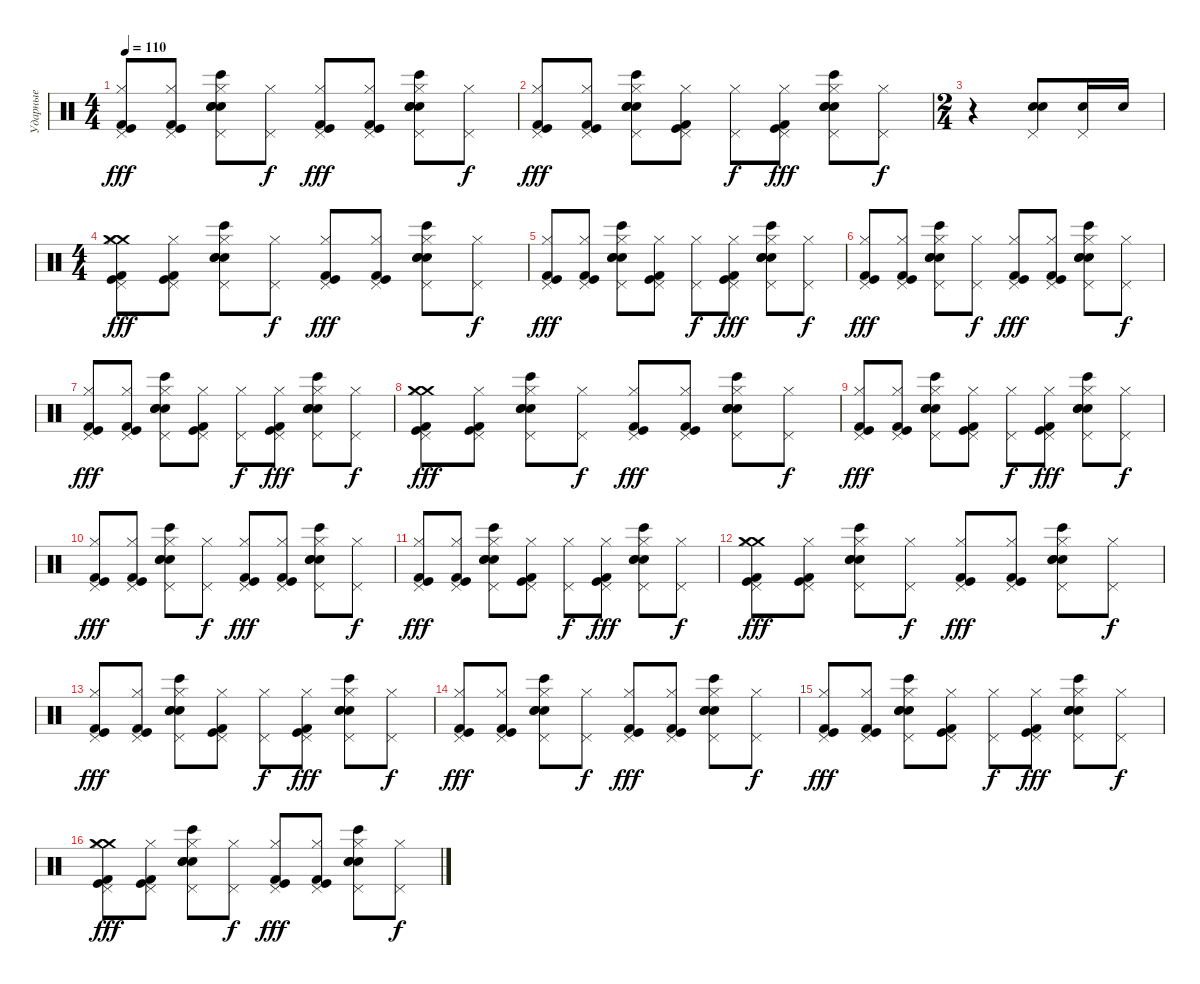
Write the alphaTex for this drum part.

\track ("Ударные" "Ударные") {instrument percussion}
\staff {score}
\articulation defaults
\ts (4 4)
\tempo 110
\clef neutral
\ks c
("Kick (hit) 2" "Kick (hit)" "Hi-Hat (closed)" "Pedal Hi-Hat (hit)").8{dy fff} ("Kick (hit) 2" "Kick (hit)" "Hi-Hat (closed)" "Pedal Hi-Hat (hit)").8 ("Bongo High (hit)" "Snare (hit) 2" "Snare (hit) 2" "Snare (hit) 2" "Hi-Hat (closed)" "Pedal Hi-Hat (hit)").8 ("Hi-Hat (closed)" "Pedal Hi-Hat (hit)").8{dy f} ("Kick (hit) 2" "Kick (hit)" "Hi-Hat (closed)" "Pedal Hi-Hat (hit)").8{dy fff} ("Kick (hit) 2" "Kick (hit)" "Hi-Hat (closed)" "Pedal Hi-Hat (hit)").8 ("Bongo High (hit)" "Snare (hit) 2" "Snare (hit) 2" "Snare (hit) 2" "Hi-Hat (closed)" "Pedal Hi-Hat (hit)").8 ("Hi-Hat (closed)" "Pedal Hi-Hat (hit)").8{dy f} |
("Kick (hit) 2" "Kick (hit)" "Hi-Hat (closed)" "Pedal Hi-Hat (hit)").8{dy fff} ("Kick (hit) 2" "Kick (hit)" "Hi-Hat (closed)" "Pedal Hi-Hat (hit)").8 ("Bongo High (hit)" "Snare (hit) 2" "Snare (hit) 2" "Snare (hit) 2" "Hi-Hat (closed)" "Pedal Hi-Hat (hit)").8 ("Kick (hit) 2" "Kick (hit)" "Hi-Hat (closed)" "Pedal Hi-Hat (hit)").8 ("Hi-Hat (closed)" "Pedal Hi-Hat (hit)").8{dy f} ("Kick (hit) 2" "Kick (hit)" "Hi-Hat (closed)" "Pedal Hi-Hat (hit)").8{dy fff} ("Bongo High (hit)" "Snare (hit) 2" "Snare (hit) 2" "Snare (hit) 2" "Hi-Hat (closed)" "Pedal Hi-Hat (hit)").8 ("Hi-Hat (closed)" "Pedal Hi-Hat (hit)").8{dy f} |
\ts (2 4)
r.4 ("Hand Clap (hit)" "Snare (hit) 2" "Pedal Hi-Hat (hit)").8 ("Snare (hit) 2" "Pedal Hi-Hat (hit)").16 "Snare (hit) 2".16 |
\ts (4 4)
("Crash medium (hit)" "Crash medium (hit)" "Kick (hit) 2" "Kick (hit)" "Hi-Hat (closed)" "Pedal Hi-Hat (hit)").8{dy fff} ("Kick (hit) 2" "Kick (hit)" "Hi-Hat (closed)" "Pedal Hi-Hat (hit)").8 ("Bongo High (hit)" "Snare (hit) 2" "Snare (hit) 2" "Snare (hit) 2" "Hi-Hat (closed)" "Pedal Hi-Hat (hit)").8 ("Hi-Hat (closed)" "Pedal Hi-Hat (hit)").8{dy f} ("Kick (hit) 2" "Kick (hit)" "Hi-Hat (closed)" "Pedal Hi-Hat (hit)").8{dy fff} ("Kick (hit) 2" "Kick (hit)" "Hi-Hat (closed)" "Pedal Hi-Hat (hit)").8 ("Bongo High (hit)" "Snare (hit) 2" "Snare (hit) 2" "Snare (hit) 2" "Hi-Hat (closed)" "Pedal Hi-Hat (hit)").8 ("Hi-Hat (closed)" "Pedal Hi-Hat (hit)").8{dy f} |
("Kick (hit) 2" "Kick (hit)" "Hi-Hat (closed)" "Pedal Hi-Hat (hit)").8{dy fff} ("Kick (hit) 2" "Kick (hit)" "Hi-Hat (closed)" "Pedal Hi-Hat (hit)").8 ("Bongo High (hit)" "Snare (hit) 2" "Snare (hit) 2" "Snare (hit) 2" "Hi-Hat (closed)" "Pedal Hi-Hat (hit)").8 ("Kick (hit) 2" "Kick (hit)" "Hi-Hat (closed)" "Pedal Hi-Hat (hit)").8 ("Hi-Hat (closed)" "Pedal Hi-Hat (hit)").8{dy f} ("Kick (hit) 2" "Kick (hit)" "Hi-Hat (closed)" "Pedal Hi-Hat (hit)").8{dy fff} ("Bongo High (hit)" "Snare (hit) 2" "Snare (hit) 2" "Snare (hit) 2" "Hi-Hat (closed)" "Pedal Hi-Hat (hit)").8 ("Hi-Hat (closed)" "Pedal Hi-Hat (hit)").8{dy f} |
("Kick (hit) 2" "Kick (hit)" "Hi-Hat (closed)" "Pedal Hi-Hat (hit)").8{dy fff} ("Kick (hit) 2" "Kick (hit)" "Hi-Hat (closed)" "Pedal Hi-Hat (hit)").8 ("Bongo High (hit)" "Snare (hit) 2" "Snare (hit) 2" "Snare (hit) 2" "Hi-Hat (closed)" "Pedal Hi-Hat (hit)").8 ("Hi-Hat (closed)" "Pedal Hi-Hat (hit)").8{dy f} ("Kick (hit) 2" "Kick (hit)" "Hi-Hat (closed)" "Pedal Hi-Hat (hit)").8{dy fff} ("Kick (hit) 2" "Kick (hit)" "Hi-Hat (closed)" "Pedal Hi-Hat (hit)").8 ("Bongo High (hit)" "Snare (hit) 2" "Snare (hit) 2" "Snare (hit) 2" "Hi-Hat (closed)" "Pedal Hi-Hat (hit)").8 ("Hi-Hat (closed)" "Pedal Hi-Hat (hit)").8{dy f} |
("Kick (hit) 2" "Kick (hit)" "Hi-Hat (closed)" "Pedal Hi-Hat (hit)").8{dy fff} ("Kick (hit) 2" "Kick (hit)" "Hi-Hat (closed)" "Pedal Hi-Hat (hit)").8 ("Bongo High (hit)" "Snare (hit) 2" "Snare (hit) 2" "Snare (hit) 2" "Hi-Hat (closed)" "Pedal Hi-Hat (hit)").8 ("Kick (hit) 2" "Kick (hit)" "Hi-Hat (closed)" "Pedal Hi-Hat (hit)").8 ("Hi-Hat (closed)" "Pedal Hi-Hat (hit)").8{dy f} ("Kick (hit) 2" "Kick (hit)" "Hi-Hat (closed)" "Pedal Hi-Hat (hit)").8{dy fff} ("Bongo High (hit)" "Snare (hit) 2" "Snare (hit) 2" "Snare (hit) 2" "Hi-Hat (closed)" "Pedal Hi-Hat (hit)").8 ("Hi-Hat (closed)" "Pedal Hi-Hat (hit)").8{dy f} |
("Crash medium (hit)" "Crash medium (hit)" "Kick (hit) 2" "Kick (hit)" "Hi-Hat (closed)" "Pedal Hi-Hat (hit)").8{dy fff} ("Kick (hit) 2" "Kick (hit)" "Hi-Hat (closed)" "Pedal Hi-Hat (hit)").8 ("Bongo High (hit)" "Snare (hit) 2" "Snare (hit) 2" "Snare (hit) 2" "Hi-Hat (closed)" "Pedal Hi-Hat (hit)").8 ("Hi-Hat (closed)" "Pedal Hi-Hat (hit)").8{dy f} ("Kick (hit) 2" "Kick (hit)" "Hi-Hat (closed)" "Pedal Hi-Hat (hit)").8{dy fff} ("Kick (hit) 2" "Kick (hit)" "Hi-Hat (closed)" "Pedal Hi-Hat (hit)").8 ("Bongo High (hit)" "Snare (hit) 2" "Snare (hit) 2" "Snare (hit) 2" "Hi-Hat (closed)" "Pedal Hi-Hat (hit)").8 ("Hi-Hat (closed)" "Pedal Hi-Hat (hit)").8{dy f} |
("Kick (hit) 2" "Kick (hit)" "Hi-Hat (closed)" "Pedal Hi-Hat (hit)").8{dy fff} ("Kick (hit) 2" "Kick (hit)" "Hi-Hat (closed)" "Pedal Hi-Hat (hit)").8 ("Bongo High (hit)" "Snare (hit) 2" "Snare (hit) 2" "Snare (hit) 2" "Hi-Hat (closed)" "Pedal Hi-Hat (hit)").8 ("Kick (hit) 2" "Kick (hit)" "Hi-Hat (closed)" "Pedal Hi-Hat (hit)").8 ("Hi-Hat (closed)" "Pedal Hi-Hat (hit)").8{dy f} ("Kick (hit) 2" "Kick (hit)" "Hi-Hat (closed)" "Pedal Hi-Hat (hit)").8{dy fff} ("Bongo High (hit)" "Snare (hit) 2" "Snare (hit) 2" "Snare (hit) 2" "Hi-Hat (closed)" "Pedal Hi-Hat (hit)").8 ("Hi-Hat (closed)" "Pedal Hi-Hat (hit)").8{dy f} |
("Kick (hit) 2" "Kick (hit)" "Hi-Hat (closed)" "Pedal Hi-Hat (hit)").8{dy fff} ("Kick (hit) 2" "Kick (hit)" "Hi-Hat (closed)" "Pedal Hi-Hat (hit)").8 ("Bongo High (hit)" "Snare (hit) 2" "Snare (hit) 2" "Snare (hit) 2" "Hi-Hat (closed)" "Pedal Hi-Hat (hit)").8 ("Hi-Hat (closed)" "Pedal Hi-Hat (hit)").8{dy f} ("Kick (hit) 2" "Kick (hit)" "Hi-Hat (closed)" "Pedal Hi-Hat (hit)").8{dy fff} ("Kick (hit) 2" "Kick (hit)" "Hi-Hat (closed)" "Pedal Hi-Hat (hit)").8 ("Bongo High (hit)" "Snare (hit) 2" "Snare (hit) 2" "Snare (hit) 2" "Hi-Hat (closed)" "Pedal Hi-Hat (hit)").8 ("Hi-Hat (closed)" "Pedal Hi-Hat (hit)").8{dy f} |
("Kick (hit) 2" "Kick (hit)" "Hi-Hat (closed)" "Pedal Hi-Hat (hit)").8{dy fff} ("Kick (hit) 2" "Kick (hit)" "Hi-Hat (closed)" "Pedal Hi-Hat (hit)").8 ("Bongo High (hit)" "Snare (hit) 2" "Snare (hit) 2" "Snare (hit) 2" "Hi-Hat (closed)" "Pedal Hi-Hat (hit)").8 ("Kick (hit) 2" "Kick (hit)" "Hi-Hat (closed)" "Pedal Hi-Hat (hit)").8 ("Hi-Hat (closed)" "Pedal Hi-Hat (hit)").8{dy f} ("Kick (hit) 2" "Kick (hit)" "Hi-Hat (closed)" "Pedal Hi-Hat (hit)").8{dy fff} ("Bongo High (hit)" "Snare (hit) 2" "Snare (hit) 2" "Snare (hit) 2" "Hi-Hat (closed)" "Pedal Hi-Hat (hit)").8 ("Hi-Hat (closed)" "Pedal Hi-Hat (hit)").8{dy f} |
("Crash medium (hit)" "Crash medium (hit)" "Kick (hit) 2" "Kick (hit)" "Hi-Hat (closed)" "Pedal Hi-Hat (hit)").8{dy fff} ("Kick (hit) 2" "Kick (hit)" "Hi-Hat (closed)" "Pedal Hi-Hat (hit)").8 ("Bongo High (hit)" "Snare (hit) 2" "Snare (hit) 2" "Snare (hit) 2" "Hi-Hat (closed)" "Pedal Hi-Hat (hit)").8 ("Hi-Hat (closed)" "Pedal Hi-Hat (hit)").8{dy f} ("Kick (hit) 2" "Kick (hit)" "Hi-Hat (closed)" "Pedal Hi-Hat (hit)").8{dy fff} ("Kick (hit) 2" "Kick (hit)" "Hi-Hat (closed)" "Pedal Hi-Hat (hit)").8 ("Bongo High (hit)" "Snare (hit) 2" "Snare (hit) 2" "Snare (hit) 2" "Hi-Hat (closed)" "Pedal Hi-Hat (hit)").8 ("Hi-Hat (closed)" "Pedal Hi-Hat (hit)").8{dy f} |
("Kick (hit) 2" "Kick (hit)" "Hi-Hat (closed)" "Pedal Hi-Hat (hit)").8{dy fff} ("Kick (hit) 2" "Kick (hit)" "Hi-Hat (closed)" "Pedal Hi-Hat (hit)").8 ("Bongo High (hit)" "Snare (hit) 2" "Snare (hit) 2" "Snare (hit) 2" "Hi-Hat (closed)" "Pedal Hi-Hat (hit)").8 ("Kick (hit) 2" "Kick (hit)" "Hi-Hat (closed)" "Pedal Hi-Hat (hit)").8 ("Hi-Hat (closed)" "Pedal Hi-Hat (hit)").8{dy f} ("Kick (hit) 2" "Kick (hit)" "Hi-Hat (closed)" "Pedal Hi-Hat (hit)").8{dy fff} ("Bongo High (hit)" "Snare (hit) 2" "Snare (hit) 2" "Snare (hit) 2" "Hi-Hat (closed)" "Pedal Hi-Hat (hit)").8 ("Hi-Hat (closed)" "Pedal Hi-Hat (hit)").8{dy f} |
("Kick (hit) 2" "Kick (hit)" "Hi-Hat (closed)" "Pedal Hi-Hat (hit)").8{dy fff} ("Kick (hit) 2" "Kick (hit)" "Hi-Hat (closed)" "Pedal Hi-Hat (hit)").8 ("Bongo High (hit)" "Snare (hit) 2" "Snare (hit) 2" "Snare (hit) 2" "Hi-Hat (closed)" "Pedal Hi-Hat (hit)").8 ("Hi-Hat (closed)" "Pedal Hi-Hat (hit)").8{dy f} ("Kick (hit) 2" "Kick (hit)" "Hi-Hat (closed)" "Pedal Hi-Hat (hit)").8{dy fff} ("Kick (hit) 2" "Kick (hit)" "Hi-Hat (closed)" "Pedal Hi-Hat (hit)").8 ("Bongo High (hit)" "Snare (hit) 2" "Snare (hit) 2" "Snare (hit) 2" "Hi-Hat (closed)" "Pedal Hi-Hat (hit)").8 ("Hi-Hat (closed)" "Pedal Hi-Hat (hit)").8{dy f} |
("Kick (hit) 2" "Kick (hit)" "Hi-Hat (closed)" "Pedal Hi-Hat (hit)").8{dy fff} ("Kick (hit) 2" "Kick (hit)" "Hi-Hat (closed)" "Pedal Hi-Hat (hit)").8 ("Bongo High (hit)" "Snare (hit) 2" "Snare (hit) 2" "Snare (hit) 2" "Hi-Hat (closed)" "Pedal Hi-Hat (hit)").8 ("Kick (hit) 2" "Kick (hit)" "Hi-Hat (closed)" "Pedal Hi-Hat (hit)").8 ("Hi-Hat (closed)" "Pedal Hi-Hat (hit)").8{dy f} ("Kick (hit) 2" "Kick (hit)" "Hi-Hat (closed)" "Pedal Hi-Hat (hit)").8{dy fff} ("Bongo High (hit)" "Snare (hit) 2" "Snare (hit) 2" "Snare (hit) 2" "Hi-Hat (closed)" "Pedal Hi-Hat (hit)").8 ("Hi-Hat (closed)" "Pedal Hi-Hat (hit)").8{dy f} |
("Crash medium (hit)" "Crash medium (hit)" "Kick (hit) 2" "Kick (hit)" "Hi-Hat (closed)" "Pedal Hi-Hat (hit)").8{dy fff} ("Kick (hit) 2" "Kick (hit)" "Hi-Hat (closed)" "Pedal Hi-Hat (hit)").8 ("Bongo High (hit)" "Snare (hit) 2" "Snare (hit) 2" "Snare (hit) 2" "Hi-Hat (closed)" "Pedal Hi-Hat (hit)").8 ("Hi-Hat (closed)" "Pedal Hi-Hat (hit)").8{dy f} ("Kick (hit) 2" "Kick (hit)" "Hi-Hat (closed)" "Pedal Hi-Hat (hit)").8{dy fff} ("Kick (hit) 2" "Kick (hit)" "Hi-Hat (closed)" "Pedal Hi-Hat (hit)").8 ("Bongo High (hit)" "Snare (hit) 2" "Snare (hit) 2" "Snare (hit) 2" "Hi-Hat (closed)" "Pedal Hi-Hat (hit)").8 ("Hi-Hat (closed)" "Pedal Hi-Hat (hit)").8{dy f}
